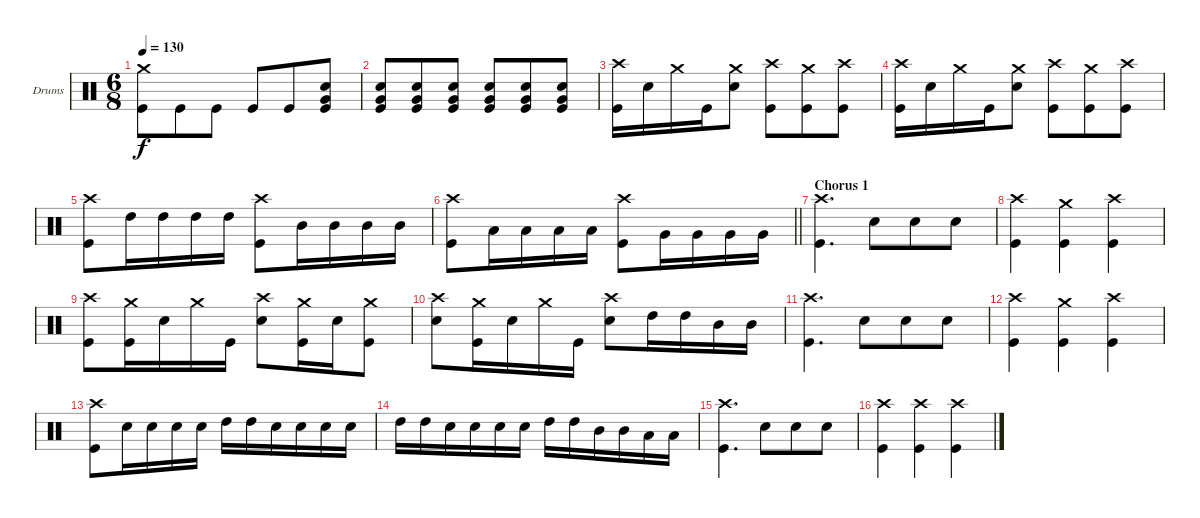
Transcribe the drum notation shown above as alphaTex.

\bracketExtendMode groupsimilarinstruments
\firstSystemTrackNameOrientation horizontal
\otherSystemsTrackNameOrientation horizontal
\track ("drums (Anton Zulganov)" "Drums") {instrument percussion}
\staff {score}
\articulation defaults
\ts (6 8)
\tempo 130
\clef neutral
\ks aminor
("Crash medium (hit)" "Kick (hit)").8{dy f} "Kick (hit)".8 "Kick (hit)".8 "Kick (hit)".8 "Kick (hit)".8 ("Snare (hit) 2" "Kick (hit)" "Very Low Tom (hit)").8 |
("Snare (hit) 2" "Kick (hit)" "Very Low Tom (hit)").8 ("Snare (hit) 2" "Kick (hit)" "Very Low Tom (hit)").8 ("Snare (hit) 2" "Kick (hit)" "Very Low Tom (hit)").8 ("Snare (hit) 2" "Kick (hit)" "Very Low Tom (hit)").8 ("Snare (hit) 2" "Kick (hit)" "Very Low Tom (hit)").8 ("Snare (hit) 2" "Kick (hit)" "Very Low Tom (hit)").8 |
("Kick (hit)" "Crash high (hit)").16 "Snare (hit) 2".16 "Crash medium (hit)".16 "Kick (hit)".16 ("Snare (hit) 2" "Crash medium (hit)").8 ("Kick (hit)" "Crash high (hit)").8 ("Kick (hit)" "Crash medium (hit)").8 ("Kick (hit)" "Crash high (hit)").8 |
("Kick (hit)" "Crash high (hit)").16 "Snare (hit) 2".16 "Crash medium (hit)".16 "Kick (hit)".16 ("Snare (hit) 2" "Crash medium (hit)").8 ("Kick (hit)" "Crash high (hit)").8 ("Kick (hit)" "Crash medium (hit)").8 ("Kick (hit)" "Crash high (hit)").8 |
("Kick (hit)" "Crash high (hit)").8 "High Tom (hit)".16 "High Tom (hit)".16 "High Tom (hit)".16 "High Tom (hit)".16 ("Kick (hit)" "Crash high (hit)").8 "Mid Tom (hit)".16 "Mid Tom (hit)".16 "Mid Tom (hit)".16 "Mid Tom (hit)".16 |
\barLineRight lightlight
("Kick (hit)" "Crash high (hit)").8 "Low Tom (hit)".16 "Low Tom (hit)".16 "Low Tom (hit)".16 "Low Tom (hit)".16 ("Kick (hit)" "Crash high (hit)").8 "Very Low Tom (hit)".16 "Very Low Tom (hit)".16 "Very Low Tom (hit)".16 "Very Low Tom (hit)".16 |
\section ("" "Chorus 1")
("Crash high (hit)" "Kick (hit)").4{d} "Snare (hit) 2".8 "Snare (hit) 2".8 "Snare (hit) 2".8 |
("Crash high (hit)" "Kick (hit)").4 ("Kick (hit)" "Crash medium (hit)").4 ("Crash high (hit)" "Kick (hit)").4 |
("Kick (hit)" "Crash high (hit)").8 ("Crash medium (hit)" "Kick (hit)").16 "Snare (hit) 2".16 "Crash medium (hit)".16 "Kick (hit)".16 ("Crash high (hit)" "Snare (hit) 2").8 ("Kick (hit)" "Crash medium (hit)").16 "Snare (hit) 2".16 ("Kick (hit)" "Crash medium (hit)").8 |
("Crash high (hit)" "Snare (hit) 2").8 ("Crash medium (hit)" "Kick (hit)").16 "Snare (hit) 2".16 "Crash medium (hit)".16 "Kick (hit)".16 ("Crash high (hit)" "Snare (hit) 2").8 "High Tom (hit)".16 "High Tom (hit)".16 "Mid Tom (hit)".16 "Mid Tom (hit)".16 |
("Crash high (hit)" "Kick (hit)").4{d} "Snare (hit) 2".8 "Snare (hit) 2".8 "Snare (hit) 2".8 |
("Crash high (hit)" "Kick (hit)").4 ("Kick (hit)" "Crash medium (hit)").4 ("Crash high (hit)" "Kick (hit)").4 |
("Kick (hit)" "Crash high (hit)").8 "Snare (hit) 2".16 "Snare (hit) 2".16 "Snare (hit) 2".16 "Snare (hit) 2".16 "High Tom (hit)".16 "High Tom (hit)".16 "Snare (hit) 2".16 "Snare (hit) 2".16 "Snare (hit) 2".16 "Snare (hit) 2".16 |
"High Tom (hit)".16 "High Tom (hit)".16 "Snare (hit) 2".16 "Snare (hit) 2".16 "Snare (hit) 2".16 "Snare (hit) 2".16 "High Tom (hit)".16 "High Tom (hit)".16 "Mid Tom (hit)".16 "Mid Tom (hit)".16 "Low Tom (hit)".16 "Low Tom (hit)".16 |
("Crash high (hit)" "Kick (hit)").4{d} "Snare (hit) 2".8 "Snare (hit) 2".8 "Snare (hit) 2".8 |
("Crash high (hit)" "Kick (hit)").4 ("Crash high (hit)" "Kick (hit)").4 ("Crash high (hit)" "Kick (hit)").4
